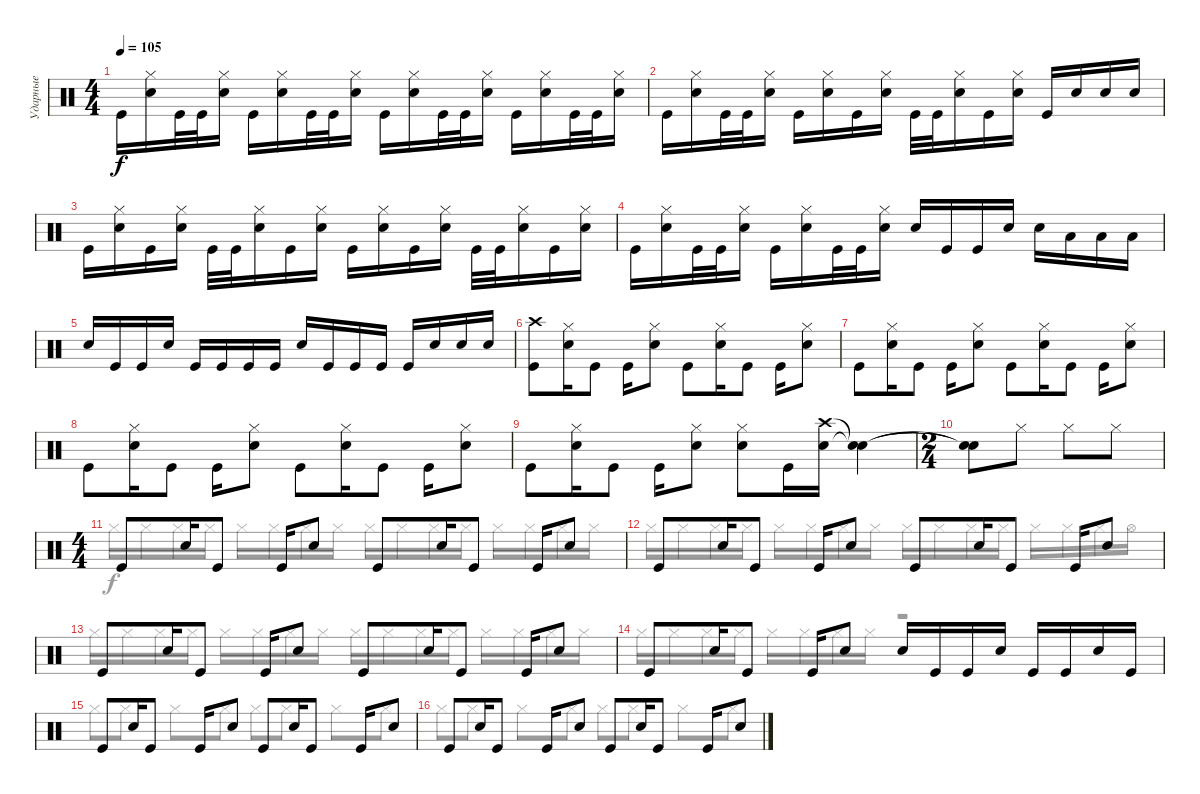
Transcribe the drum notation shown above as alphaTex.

\track ("Ударные" "Ударные") {instrument percussion}
\staff {score}
\articulation defaults
\voice
\ts (4 4)
\tempo 105
\clef neutral
\ks c "Kick (hit)".16{dy f}
("Hi-Hat (closed)" "Snare (hit) 2").16 "Kick (hit)".32 "Kick (hit)".32 ("Hi-Hat (closed)" "Snare (hit) 2").16 "Kick (hit)".16 ("Hi-Hat (closed)" "Snare (hit) 2").16 "Kick (hit)".32 "Kick (hit)".32 ("Hi-Hat (closed)" "Snare (hit) 2").16 "Kick (hit)".16 ("Hi-Hat (closed)" "Snare (hit) 2").16 "Kick (hit)".32 "Kick (hit)".32 ("Hi-Hat (closed)" "Snare (hit) 2").16 "Kick (hit)".16 ("Hi-Hat (closed)" "Snare (hit) 2").16 "Kick (hit)".32 "Kick (hit)".32 ("Hi-Hat (closed)" "Snare (hit) 2").16 |
"Kick (hit)".16 ("Hi-Hat (closed)" "Snare (hit) 2").16 "Kick (hit)".32 "Kick (hit)".32 ("Hi-Hat (closed)" "Snare (hit) 2").16 "Kick (hit)".16 ("Hi-Hat (closed)" "Snare (hit) 2").16 "Kick (hit)".16 ("Hi-Hat (closed)" "Snare (hit) 2").16 "Kick (hit)".32 "Kick (hit)".32 ("Hi-Hat (closed)" "Snare (hit) 2").16 "Kick (hit)".16 ("Hi-Hat (closed)" "Snare (hit) 2").16 "Kick (hit)".16 "Snare (hit) 2".16 "Snare (hit) 2".16 "Snare (hit) 2".16 |
"Kick (hit)".16 ("Hi-Hat (closed)" "Snare (hit) 2").16 "Kick (hit)".16 ("Hi-Hat (closed)" "Snare (hit) 2").16 "Kick (hit)".32 "Kick (hit)".32 ("Hi-Hat (closed)" "Snare (hit) 2").16 "Kick (hit)".16 ("Hi-Hat (closed)" "Snare (hit) 2").16 "Kick (hit)".16 ("Hi-Hat (closed)" "Snare (hit) 2").16 "Kick (hit)".16 ("Hi-Hat (closed)" "Snare (hit) 2").16 "Kick (hit)".32 "Kick (hit)".32 ("Hi-Hat (closed)" "Snare (hit) 2").16 "Kick (hit)".16 ("Hi-Hat (closed)" "Snare (hit) 2").16 |
"Kick (hit)".16 ("Hi-Hat (closed)" "Snare (hit) 2").16 "Kick (hit)".32 "Kick (hit)".32 ("Hi-Hat (closed)" "Snare (hit) 2").16 "Kick (hit)".16 ("Hi-Hat (closed)" "Snare (hit) 2").16 "Kick (hit)".32 "Kick (hit)".32 ("Hi-Hat (closed)" "Snare (hit) 2").16 "Snare (hit) 2".16 "Kick (hit)".16 "Kick (hit)".16 "Snare (hit) 2".16 "Snare (hit) 2".16 "Low Floor Tom (hit)".16 "Low Floor Tom (hit)".16 "Low Floor Tom (hit)".16 |
"Snare (hit) 2".16 "Kick (hit)".16 "Kick (hit)".16 "Snare (hit) 2".16 "Kick (hit)".16 "Kick (hit)".16 "Kick (hit)".16 "Kick (hit)".16 "Snare (hit) 2".16 "Kick (hit)".16 "Kick (hit)".16 "Kick (hit)".16 "Kick (hit)".16 "Snare (hit) 2".16 "Snare (hit) 2".16 "Snare (hit) 2".16 |
("Kick (hit)" "Crash high (hit)").8 ("Snare (hit) 2" "Hi-Hat (closed)").16 "Kick (hit)".8 "Kick (hit)".16 ("Snare (hit) 2" "Hi-Hat (closed)").8 "Kick (hit)".8 ("Snare (hit) 2" "Hi-Hat (closed)").16 "Kick (hit)".8 "Kick (hit)".16 ("Snare (hit) 2" "Hi-Hat (closed)").8 |
"Kick (hit)".8 ("Snare (hit) 2" "Hi-Hat (closed)").16 "Kick (hit)".8 "Kick (hit)".16 ("Snare (hit) 2" "Hi-Hat (closed)").8 "Kick (hit)".8 ("Snare (hit) 2" "Hi-Hat (closed)").16 "Kick (hit)".8 "Kick (hit)".16 ("Snare (hit) 2" "Hi-Hat (closed)").8 |
"Kick (hit)".8 ("Snare (hit) 2" "Hi-Hat (closed)").16 "Kick (hit)".8 "Kick (hit)".16 ("Snare (hit) 2" "Hi-Hat (closed)").8 "Kick (hit)".8 ("Snare (hit) 2" "Hi-Hat (closed)").16 "Kick (hit)".8 "Kick (hit)".16 ("Snare (hit) 2" "Hi-Hat (closed)").8 |
"Kick (hit)".8 ("Snare (hit) 2" "Hi-Hat (closed)").16 "Kick (hit)".8 "Kick (hit)".16 ("Snare (hit) 2" "Hi-Hat (closed)").8 ("Snare (hit) 2" "Hi-Hat (closed)").8 "Kick (hit)".16 ("Snare (hit) 2" "Crash high (hit)").16 ("Snare (hit)"{t} "Snare (hit)"{t}).4 |
\ts (2 4)
("Snare (hit)"{t} "Snare (hit)"{t}).8 "Hi-Hat (closed)".8 "Hi-Hat (closed)".8 "Hi-Hat (closed)".8 |
\ts (4 4)
"Kick (hit)".8 "Snare (hit) 2".16 "Kick (hit)".8 "Kick (hit)".16 "Snare (hit) 2".8 "Kick (hit)".8 "Snare (hit) 2".16 "Kick (hit)".8 "Kick (hit)".16 "Snare (hit) 2".8 |
"Kick (hit)".8 "Snare (hit) 2".16 "Kick (hit)".8 "Kick (hit)".16 "Snare (hit) 2".8 "Kick (hit)".8 "Snare (hit) 2".16 "Kick (hit)".8 "Kick (hit)".16 "Snare (hit) 2".8 |
"Kick (hit)".8 "Snare (hit) 2".16 "Kick (hit)".8 "Kick (hit)".16 "Snare (hit) 2".8 "Kick (hit)".8 "Snare (hit) 2".16 "Kick (hit)".8 "Kick (hit)".16 "Snare (hit) 2".8 |
"Kick (hit)".8 "Snare (hit) 2".16 "Kick (hit)".8 "Kick (hit)".16 "Snare (hit) 2".8 "Snare (hit) 2".16 "Kick (hit)".16 "Kick (hit)".16 "Snare (hit) 2".16 "Kick (hit)".16 "Kick (hit)".16 "Snare (hit) 2".16 "Kick (hit)".16 |
"Kick (hit)".8 "Snare (hit) 2".16 "Kick (hit)".8 "Kick (hit)".16 "Snare (hit) 2".8 "Kick (hit)".8 "Snare (hit) 2".16 "Kick (hit)".8 "Kick (hit)".16 "Snare (hit) 2".8 |
"Kick (hit)".8 "Snare (hit) 2".16 "Kick (hit)".8 "Kick (hit)".16 "Snare (hit) 2".8 "Kick (hit)".8 "Snare (hit) 2".16 "Kick (hit)".8 "Kick (hit)".16 "Snare (hit) 2".8
\voice
\clef neutral
\ottava regular
\simile none
\ks c
|
|
|
|
|
|
|
|
|
|
"Hi-Hat (closed)".16 "Hi-Hat (closed)".16 "Hi-Hat (closed)".16 "Hi-Hat (closed)".16 "Hi-Hat (closed)".16 "Hi-Hat (closed)".16 "Hi-Hat (closed)".16 "Hi-Hat (closed)".16 "Hi-Hat (closed)".16 "Hi-Hat (closed)".16 "Hi-Hat (closed)".16 "Hi-Hat (closed)".16 "Hi-Hat (closed)".16 "Hi-Hat (closed)".16 "Hi-Hat (closed)".16 "Hi-Hat (closed)".16 |
"Hi-Hat (closed)".16 "Hi-Hat (closed)".16 "Hi-Hat (closed)".16 "Hi-Hat (closed)".16 "Hi-Hat (closed)".16 "Hi-Hat (closed)".16 "Hi-Hat (closed)".16 "Hi-Hat (closed)".16 "Hi-Hat (closed)".16 "Hi-Hat (closed)".16 "Hi-Hat (closed)".16 "Hi-Hat (closed)".16 "Hi-Hat (closed)".16 "Hi-Hat (closed)".16 "Hi-Hat (closed)".16 "Hi-Hat (open)".16 |
"Hi-Hat (closed)".16 "Hi-Hat (closed)".16 "Hi-Hat (closed)".16 "Hi-Hat (closed)".16 "Hi-Hat (closed)".16 "Hi-Hat (closed)".16 "Hi-Hat (closed)".16 "Hi-Hat (closed)".16 "Hi-Hat (closed)".16 "Hi-Hat (closed)".16 "Hi-Hat (closed)".16 "Hi-Hat (closed)".16 "Hi-Hat (closed)".16 "Hi-Hat (closed)".16 "Hi-Hat (closed)".16 "Hi-Hat (closed)".16 |
"Hi-Hat (closed)".16 "Hi-Hat (closed)".16 "Hi-Hat (closed)".16 "Hi-Hat (closed)".16 "Hi-Hat (closed)".16 "Hi-Hat (closed)".16 "Hi-Hat (closed)".16 "Hi-Hat (closed)".16 r.2 |
"Hi-Hat (closed)".8{dy f} "Hi-Hat (closed)".8 "Hi-Hat (closed)".8 "Hi-Hat (closed)".8 "Hi-Hat (closed)".8 "Hi-Hat (closed)".8 "Hi-Hat (closed)".8 "Hi-Hat (closed)".8 |
"Hi-Hat (closed)".8 "Hi-Hat (closed)".8 "Hi-Hat (closed)".8 "Hi-Hat (closed)".8 "Hi-Hat (closed)".8 "Hi-Hat (closed)".8 "Hi-Hat (closed)".8 "Hi-Hat (closed)".8
